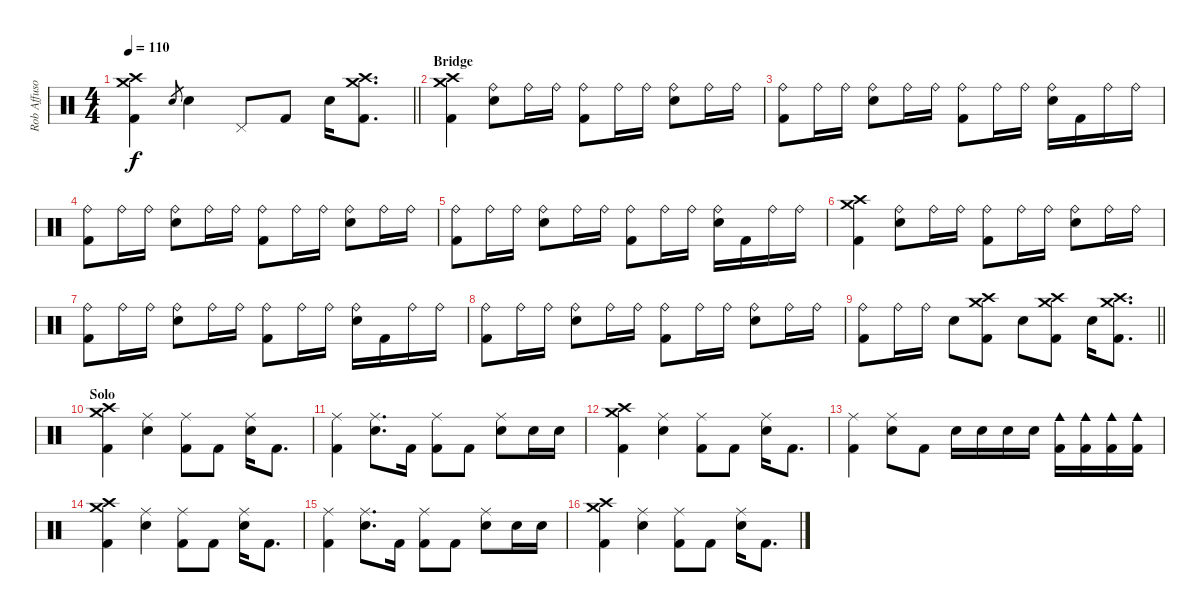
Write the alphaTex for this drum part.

\track ("Rob Affuso - Drums" "Rob Affuso") {instrument percussion}
\staff {score}
\articulation defaults
\ts (4 4)
\tempo 110
\clef neutral
\barLineRight lightlight
\ks c
("Crash medium (hit)" "Crash high (hit)" "Kick (hit) 2").4{dy f} "Snare (hit) 2".8{gr} "Snare (hit) 2".4 "Pedal Hi-Hat (hit)".8 "Kick (hit) 2".8 "Snare (hit) 2".16 ("Crash medium (hit)" "Crash high (hit)" "Kick (hit) 2").8{d} |
\section ("" "Bridge")
("Crash medium (hit)" "Crash high (hit)" "Kick (hit) 2").4 ("Ride (bell)" "Snare (hit) 2").8 "Ride (bell)".16 "Ride (bell)".16 ("Ride (bell)" "Kick (hit) 2").8 "Ride (bell)".16 "Ride (bell)".16 ("Ride (bell)" "Snare (hit) 2").8 "Ride (bell)".16 "Ride (bell)".16 |
("Ride (bell)" "Kick (hit) 2").8 "Ride (bell)".16 "Ride (bell)".16 ("Ride (bell)" "Snare (hit) 2").8 "Ride (bell)".16 "Ride (bell)".16 ("Ride (bell)" "Kick (hit) 2").8 "Ride (bell)".16 "Ride (bell)".16 ("Ride (bell)" "Snare (hit) 2").16 "Kick (hit) 2".16 "Ride (bell)".16 "Ride (bell)".16 |
("Ride (bell)" "Kick (hit) 2").8 "Ride (bell)".16 "Ride (bell)".16 ("Ride (bell)" "Snare (hit) 2").8 "Ride (bell)".16 "Ride (bell)".16 ("Ride (bell)" "Kick (hit) 2").8 "Ride (bell)".16 "Ride (bell)".16 ("Ride (bell)" "Snare (hit) 2").8 "Ride (bell)".16 "Ride (bell)".16 |
("Ride (bell)" "Kick (hit) 2").8 "Ride (bell)".16 "Ride (bell)".16 ("Ride (bell)" "Snare (hit) 2").8 "Ride (bell)".16 "Ride (bell)".16 ("Ride (bell)" "Kick (hit) 2").8 "Ride (bell)".16 "Ride (bell)".16 ("Ride (bell)" "Snare (hit) 2").16 "Kick (hit) 2".16 "Ride (bell)".16 "Ride (bell)".16 |
("Crash medium (hit)" "Crash high (hit)" "Kick (hit) 2").4 ("Ride (bell)" "Snare (hit) 2").8 "Ride (bell)".16 "Ride (bell)".16 ("Ride (bell)" "Kick (hit) 2").8 "Ride (bell)".16 "Ride (bell)".16 ("Ride (bell)" "Snare (hit) 2").8 "Ride (bell)".16 "Ride (bell)".16 |
("Ride (bell)" "Kick (hit) 2").8 "Ride (bell)".16 "Ride (bell)".16 ("Ride (bell)" "Snare (hit) 2").8 "Ride (bell)".16 "Ride (bell)".16 ("Ride (bell)" "Kick (hit) 2").8 "Ride (bell)".16 "Ride (bell)".16 ("Ride (bell)" "Snare (hit) 2").16 "Kick (hit) 2".16 "Ride (bell)".16 "Ride (bell)".16 |
("Ride (bell)" "Kick (hit) 2").8 "Ride (bell)".16 "Ride (bell)".16 ("Ride (bell)" "Snare (hit) 2").8 "Ride (bell)".16 "Ride (bell)".16 ("Ride (bell)" "Kick (hit) 2").8 "Ride (bell)".16 "Ride (bell)".16 ("Ride (bell)" "Snare (hit) 2").8 "Ride (bell)".16 "Ride (bell)".16 |
\barLineRight lightlight
("Ride (bell)" "Kick (hit) 2").8 "Ride (bell)".16 "Ride (bell)".16 "Snare (hit) 2".8 ("Crash medium (hit)" "Crash high (hit)" "Kick (hit) 2").8 "Snare (hit) 2".8 ("Crash high (hit)" "Crash medium (hit)" "Kick (hit) 2").8 "Snare (hit) 2".16 ("Crash medium (hit)" "Crash high (hit)" "Kick (hit) 2").8{d} |
\section ("" "Solo")
("Crash medium (hit)" "Crash high (hit)" "Kick (hit) 2").4 ("Ride (middle)" "Snare (hit) 2").4 ("Ride (middle)" "Kick (hit) 2").8 "Kick (hit) 2".8 ("Ride (middle)" "Snare (hit) 2").16 "Kick (hit) 2".8{d} |
("Ride (middle)" "Kick (hit) 2").4 ("Ride (middle)" "Snare (hit) 2").8{d} "Kick (hit) 2".16 ("Ride (middle)" "Kick (hit) 2").8 "Kick (hit) 2".8 ("Ride (middle)" "Snare (hit) 2").8 "Snare (hit) 2".16 "Snare (hit) 2".16 |
("Crash medium (hit)" "Crash high (hit)" "Kick (hit) 2").4 ("Ride (middle)" "Snare (hit) 2").4 ("Ride (middle)" "Kick (hit) 2").8 "Kick (hit) 2".8 ("Ride (middle)" "Snare (hit) 2").16 "Kick (hit) 2".8{d} |
("Ride (middle)" "Kick (hit) 2").4 ("Ride (middle)" "Snare (hit) 2").8 "Kick (hit) 2".8 "Snare (hit) 2".16 "Snare (hit) 2".16 "Snare (hit) 2".16 "Snare (hit) 2".16 ("Cowbell medium (hit)" "Kick (hit) 2").16 ("Cowbell medium (hit)" "Kick (hit) 2").16 ("Cowbell medium (hit)" "Kick (hit) 2").16 ("Cowbell medium (hit)" "Kick (hit) 2").16 |
("Crash medium (hit)" "Crash high (hit)" "Kick (hit) 2").4 ("Ride (middle)" "Snare (hit) 2").4 ("Ride (middle)" "Kick (hit) 2").8 "Kick (hit) 2".8 ("Ride (middle)" "Snare (hit) 2").16 "Kick (hit) 2".8{d} |
("Ride (middle)" "Kick (hit) 2").4 ("Ride (middle)" "Snare (hit) 2").8{d} "Kick (hit) 2".16 ("Ride (middle)" "Kick (hit) 2").8 "Kick (hit) 2".8 ("Ride (middle)" "Snare (hit) 2").8 "Snare (hit) 2".16 "Snare (hit) 2".16 |
("Crash medium (hit)" "Crash high (hit)" "Kick (hit) 2").4 ("Ride (middle)" "Snare (hit) 2").4 ("Ride (middle)" "Kick (hit) 2").8 "Kick (hit) 2".8 ("Ride (middle)" "Snare (hit) 2").16 "Kick (hit) 2".8{d}
